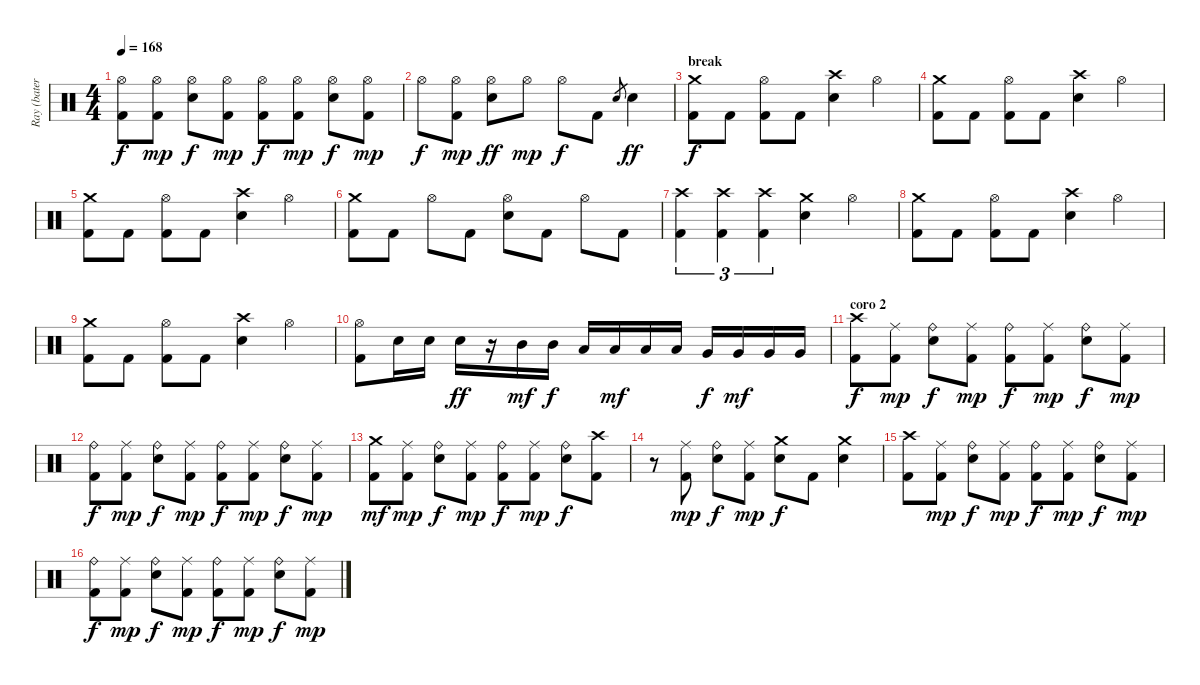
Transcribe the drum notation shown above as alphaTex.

\track ("Ray (batería)" "Ray (bater") {instrument percussion}
\staff {score}
\articulation defaults
\ts (4 4)
\tempo 168
\clef neutral
\ks c
("Hi-Hat (open)" "Kick (hit) 2").8{dy f} ("Hi-Hat (open)" "Kick (hit) 2").8{dy mp} ("Hi-Hat (open)" "Snare (hit) 2").8{dy f} ("Hi-Hat (open)" "Kick (hit) 2").8{dy mp} ("Hi-Hat (open)" "Kick (hit) 2").8{dy f} ("Hi-Hat (open)" "Kick (hit) 2").8{dy mp} ("Hi-Hat (open)" "Snare (hit) 2").8{dy f} ("Hi-Hat (open)" "Kick (hit) 2").8{dy mp} |
"Hi-Hat (open)".8{dy f} ("Hi-Hat (open)" "Kick (hit) 2").8{dy mp} ("Hi-Hat (open)" "Snare (hit) 2").8{dy ff} "Hi-Hat (open)".8{dy mp} "Hi-Hat (open)".8{dy f} "Kick (hit) 2".8 "Snare (hit) 2".8{gr} "Snare (hit) 2".4{dy ff} |
\section ("" "break")
("Crash medium (hit)" "Kick (hit) 2").8{dy f} "Kick (hit) 2".8 ("Hi-Hat (open)" "Kick (hit) 2").8 "Kick (hit) 2".8 ("Crash high (hit)" "Snare (hit) 2").4 "Hi-Hat (open)".4 |
("Crash medium (hit)" "Kick (hit) 2").8 "Kick (hit) 2".8 ("Hi-Hat (open)" "Kick (hit) 2").8 "Kick (hit) 2".8 ("Crash high (hit)" "Snare (hit) 2").4 "Hi-Hat (open)".4 |
("Crash medium (hit)" "Kick (hit) 2").8 "Kick (hit) 2".8 ("Hi-Hat (open)" "Kick (hit) 2").8 "Kick (hit) 2".8 ("Crash high (hit)" "Snare (hit) 2").4 "Hi-Hat (open)".4 |
("Crash medium (hit)" "Kick (hit) 2").8 "Kick (hit) 2".8 "Hi-Hat (open)".8 "Kick (hit) 2".8 ("Hi-Hat (open)" "Snare (hit) 2").8 "Kick (hit) 2".8 "Hi-Hat (open)".8 "Kick (hit) 2".8 |
("Crash high (hit)" "Kick (hit) 2").4{tu (3 2)} ("Crash high (hit)" "Kick (hit) 2").4{tu (3 2)} ("Crash high (hit)" "Kick (hit) 2").4{tu (3 2)} ("Crash medium (hit)" "Snare (hit) 2").4 "Hi-Hat (open)".4 |
("Crash medium (hit)" "Kick (hit) 2").8 "Kick (hit) 2".8 ("Hi-Hat (open)" "Kick (hit) 2").8 "Kick (hit) 2".8 ("Crash high (hit)" "Snare (hit) 2").4 "Hi-Hat (open)".4 |
("Crash medium (hit)" "Kick (hit) 2").8 "Kick (hit) 2".8 ("Hi-Hat (open)" "Kick (hit) 2").8 "Kick (hit) 2".8 ("Crash high (hit)" "Snare (hit) 2").4 "Hi-Hat (open)".4 |
("Hi-Hat (open)" "Kick (hit) 2").8 "Snare (hit) 2".16 "Snare (hit) 2".16 "Snare (hit) 2".16{dy ff} r.16 "Mid Tom (hit)".16{dy mf} "Mid Tom (hit)".16{dy f} "Low Tom (hit)".16 "Low Tom (hit)".16{dy mf} "Low Tom (hit)".16 "Low Tom (hit)".16 "Very Low Tom (hit)".16{dy f} "Very Low Tom (hit)".16{dy mf} "Very Low Tom (hit)".16 "Very Low Tom (hit)".16 |
\section ("" "coro 2")
("Crash high (hit)" "Kick (hit) 2").8{dy f} ("Ride (middle)" "Kick (hit) 2").8{dy mp} ("Ride (bell)" "Snare (hit) 2").8{dy f} ("Ride (middle)" "Kick (hit) 2").8{dy mp} ("Ride (bell)" "Kick (hit) 2").8{dy f} ("Ride (middle)" "Kick (hit) 2").8{dy mp} ("Ride (bell)" "Snare (hit) 2").8{dy f} ("Ride (middle)" "Kick (hit) 2").8{dy mp} |
("Ride (bell)" "Kick (hit) 2").8{dy f} ("Ride (middle)" "Kick (hit) 2").8{dy mp} ("Ride (bell)" "Snare (hit) 2").8{dy f} ("Ride (middle)" "Kick (hit) 2").8{dy mp} ("Ride (bell)" "Kick (hit) 2").8{dy f} ("Ride (middle)" "Kick (hit) 2").8{dy mp} ("Ride (bell)" "Snare (hit) 2").8{dy f} ("Ride (middle)" "Kick (hit) 2").8{dy mp} |
("Crash medium (hit)" "Kick (hit) 2").8{dy mf} ("Ride (middle)" "Kick (hit) 2").8{dy mp} ("Ride (bell)" "Snare (hit) 2").8{dy f} ("Ride (middle)" "Kick (hit) 2").8{dy mp} ("Ride (bell)" "Kick (hit) 2").8{dy f} ("Ride (middle)" "Kick (hit) 2").8{dy mp} ("Ride (bell)" "Snare (hit) 2").8{dy f} ("Crash high (hit)" "Kick (hit) 2").8 |
r.8 ("Ride (middle)" "Kick (hit) 2").8{dy mp} ("Ride (bell)" "Snare (hit) 2").8{dy f} ("Ride (middle)" "Kick (hit) 2").8{dy mp} ("Crash medium (hit)" "Snare (hit) 2").8{dy f} "Kick (hit) 2".8 ("Crash medium (hit)" "Snare (hit) 2").4 |
("Crash high (hit)" "Kick (hit) 2").8 ("Ride (middle)" "Kick (hit) 2").8{dy mp} ("Ride (bell)" "Snare (hit) 2").8{dy f} ("Ride (middle)" "Kick (hit) 2").8{dy mp} ("Ride (bell)" "Kick (hit) 2").8{dy f} ("Ride (middle)" "Kick (hit) 2").8{dy mp} ("Ride (bell)" "Snare (hit) 2").8{dy f} ("Ride (middle)" "Kick (hit) 2").8{dy mp} |
("Ride (bell)" "Kick (hit) 2").8{dy f} ("Ride (middle)" "Kick (hit) 2").8{dy mp} ("Ride (bell)" "Snare (hit) 2").8{dy f} ("Ride (middle)" "Kick (hit) 2").8{dy mp} ("Ride (bell)" "Kick (hit) 2").8{dy f} ("Ride (middle)" "Kick (hit) 2").8{dy mp} ("Ride (bell)" "Snare (hit) 2").8{dy f} ("Ride (middle)" "Kick (hit) 2").8{dy mp}
